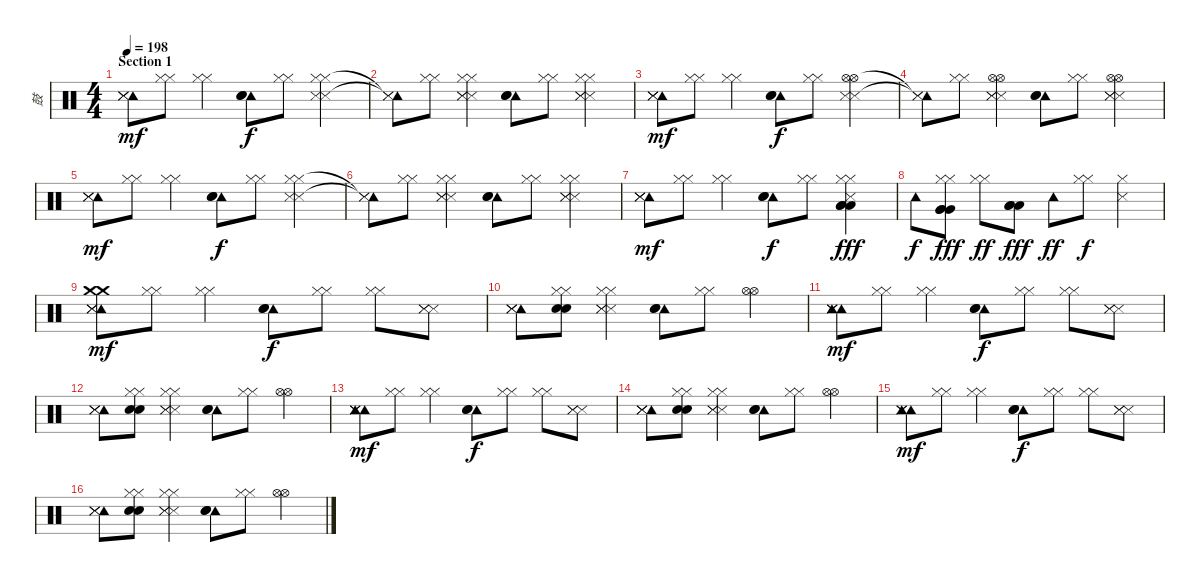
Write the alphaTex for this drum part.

\track ("鼓" "鼓") {instrument percussion}
\staff {score}
\articulation defaults
\ts (4 4)
\section ("" "Section 1")
\tempo 198
\clef neutral
\ks c
("Tambourine (hit)" "Metronome (hit)" "Metronome (hit)" "Metronome (hit)").8{dy mf} ("Hi-Hat (closed)" "Hi-Hat (closed)").8 ("Hi-Hat (closed)" "Hi-Hat (closed)").4 ("Tambourine (hit)" "Metronome (bell)" "Metronome (bell)").8{dy f} ("Hi-Hat (closed)" "Hi-Hat (closed)").8 ("Hi-Hat (closed)" "Hi-Hat (closed)" "Metronome (hit)" "Metronome (hit)").4 |
("Tambourine (hit)" "Metronome (hit)"{t} "Metronome (hit)"{t}).8 ("Hi-Hat (closed)" "Hi-Hat (closed)").8 ("Hi-Hat (closed)" "Hi-Hat (closed)" "Metronome (hit)" "Metronome (hit)" "Metronome (hit)").4 ("Tambourine (hit)" "Metronome (bell)" "Metronome (bell)").8 ("Hi-Hat (closed)" "Hi-Hat (closed)").8 ("Hi-Hat (closed)" "Hi-Hat (closed)" "Metronome (hit)" "Metronome (hit)" "Metronome (hit)").4 |
("Tambourine (hit)" "Metronome (hit)" "Metronome (hit)" "Metronome (hit)").8{dy mf} ("Hi-Hat (closed)" "Hi-Hat (closed)").8 ("Hi-Hat (closed)" "Hi-Hat (closed)").4 ("Tambourine (hit)" "Metronome (bell)" "Metronome (bell)").8{dy f} ("Hi-Hat (closed)" "Hi-Hat (closed)").8 ("Hi-Hat (open)" "Hi-Hat (open)" "Metronome (hit)" "Metronome (hit)").4 |
("Tambourine (hit)" "Metronome (hit)"{t} "Metronome (hit)"{t}).8 ("Hi-Hat (closed)" "Hi-Hat (closed)").8 ("Hi-Hat (open)" "Hi-Hat (open)" "Metronome (hit)" "Metronome (hit)" "Metronome (hit)").4 ("Tambourine (hit)" "Metronome (bell)" "Metronome (bell)").8 ("Hi-Hat (closed)" "Hi-Hat (closed)").8 ("Hi-Hat (open)" "Hi-Hat (open)" "Metronome (hit)" "Metronome (hit)" "Metronome (hit)").4 |
("Tambourine (hit)" "Metronome (hit)" "Metronome (hit)" "Metronome (hit)").8{dy mf} ("Hi-Hat (closed)" "Hi-Hat (closed)").8 ("Hi-Hat (closed)" "Hi-Hat (closed)").4 ("Tambourine (hit)" "Metronome (bell)" "Metronome (bell)").8{dy f} ("Hi-Hat (closed)" "Hi-Hat (closed)").8 ("Hi-Hat (closed)" "Hi-Hat (closed)" "Metronome (hit)" "Metronome (hit)").4 |
("Tambourine (hit)" "Metronome (hit)"{t} "Metronome (hit)"{t}).8 ("Hi-Hat (closed)" "Hi-Hat (closed)").8 ("Hi-Hat (closed)" "Hi-Hat (closed)" "Metronome (hit)" "Metronome (hit)" "Metronome (hit)").4 ("Tambourine (hit)" "Metronome (bell)" "Metronome (bell)").8 ("Hi-Hat (closed)" "Hi-Hat (closed)").8 ("Hi-Hat (closed)" "Hi-Hat (closed)" "Metronome (hit)" "Metronome (hit)" "Metronome (hit)").4 |
("Tambourine (hit)" "Metronome (hit)" "Metronome (hit)" "Metronome (hit)").8{dy mf} ("Hi-Hat (closed)" "Hi-Hat (closed)").8 ("Hi-Hat (closed)" "Hi-Hat (closed)").4 ("Tambourine (hit)" "Metronome (bell)" "Metronome (bell)").8{dy f} ("Hi-Hat (closed)" "Hi-Hat (closed)").8 ("Hi-Hat (closed)" "Hi-Hat (closed)" "Metronome (hit)" "Low Tom (hit)" "Low Tom (hit)" "Low Tom (hit)").4{dy fff} |
"Tambourine (hit)".8{dy f} ("Hi-Hat (closed)" "Hi-Hat (closed)" "Very Low Tom (hit)" "Very Low Tom (hit)" "Very Low Tom (hit)").8{dy fff} ("Hi-Hat (closed)" "Hi-Hat (closed)").8{dy ff} ("Low Floor Tom (hit)" "Low Floor Tom (hit)" "Low Floor Tom (hit)").8{dy fff} "Tambourine (hit)".8{dy ff} ("Hi-Hat (closed)" "Hi-Hat (closed)").8{dy f} ("Hi-Hat (closed)" "Metronome (hit)").4 |
("Tambourine (hit)" "Crash medium (hit)" "Metronome (hit)" "Metronome (hit)" "Metronome (hit)" "Crash medium (hit)").8{dy mf} ("Hi-Hat (closed)" "Hi-Hat (closed)").8 ("Hi-Hat (closed)" "Hi-Hat (closed)").4 ("Tambourine (hit)" "Metronome (bell)" "Metronome (bell)").8{dy f} ("Hi-Hat (closed)" "Hi-Hat (closed)").8 ("Hi-Hat (closed)" "Hi-Hat (closed)").8 ("Metronome (hit)" "Metronome (hit)" "Metronome (hit)").8 |
("Tambourine (hit)" "Metronome (hit)" "Metronome (hit)" "Metronome (hit)").8 ("Hi-Hat (closed)" "Hi-Hat (closed)" "Metronome (bell)" "Metronome (bell)").8 ("Hi-Hat (closed)" "Hi-Hat (closed)" "Metronome (hit)" "Metronome (hit)" "Metronome (hit)").4 ("Tambourine (hit)" "Metronome (bell)" "Metronome (bell)").8 ("Hi-Hat (closed)" "Hi-Hat (closed)").8 ("Hi-Hat (open)" "Hi-Hat (open)").4 |
("Tambourine (hit)" "Tambourine (hit)" "Metronome (hit)" "Metronome (hit)" "Metronome (hit)").8{dy mf} ("Hi-Hat (closed)" "Hi-Hat (closed)").8 ("Hi-Hat (closed)" "Hi-Hat (closed)").4 ("Tambourine (hit)" "Metronome (bell)" "Metronome (bell)").8{dy f} ("Hi-Hat (closed)" "Hi-Hat (closed)").8 ("Hi-Hat (closed)" "Hi-Hat (closed)").8 ("Metronome (hit)" "Metronome (hit)" "Metronome (hit)").8 |
("Tambourine (hit)" "Metronome (hit)" "Metronome (hit)" "Metronome (hit)").8 ("Hi-Hat (closed)" "Hi-Hat (closed)" "Metronome (bell)" "Metronome (bell)").8 ("Hi-Hat (closed)" "Hi-Hat (closed)" "Metronome (hit)" "Metronome (hit)" "Metronome (hit)").4 ("Tambourine (hit)" "Metronome (bell)" "Metronome (bell)").8 ("Hi-Hat (closed)" "Hi-Hat (closed)").8 ("Hi-Hat (open)" "Hi-Hat (open)").4 |
("Tambourine (hit)" "Tambourine (hit)" "Metronome (hit)" "Metronome (hit)" "Metronome (hit)").8{dy mf} ("Hi-Hat (closed)" "Hi-Hat (closed)").8 ("Hi-Hat (closed)" "Hi-Hat (closed)").4 ("Tambourine (hit)" "Metronome (bell)" "Metronome (bell)").8{dy f} ("Hi-Hat (closed)" "Hi-Hat (closed)").8 ("Hi-Hat (closed)" "Hi-Hat (closed)").8 ("Metronome (hit)" "Metronome (hit)" "Metronome (hit)").8 |
("Tambourine (hit)" "Metronome (hit)" "Metronome (hit)" "Metronome (hit)").8 ("Hi-Hat (closed)" "Hi-Hat (closed)" "Metronome (bell)" "Metronome (bell)").8 ("Hi-Hat (closed)" "Hi-Hat (closed)" "Metronome (hit)" "Metronome (hit)" "Metronome (hit)").4 ("Tambourine (hit)" "Metronome (bell)" "Metronome (bell)").8 ("Hi-Hat (closed)" "Hi-Hat (closed)").8 ("Hi-Hat (open)" "Hi-Hat (open)").4 |
("Tambourine (hit)" "Tambourine (hit)" "Metronome (hit)" "Metronome (hit)" "Metronome (hit)").8{dy mf} ("Hi-Hat (closed)" "Hi-Hat (closed)").8 ("Hi-Hat (closed)" "Hi-Hat (closed)").4 ("Tambourine (hit)" "Metronome (bell)" "Metronome (bell)").8{dy f} ("Hi-Hat (closed)" "Hi-Hat (closed)").8 ("Hi-Hat (closed)" "Hi-Hat (closed)").8 ("Metronome (hit)" "Metronome (hit)" "Metronome (hit)").8 |
("Tambourine (hit)" "Metronome (hit)" "Metronome (hit)" "Metronome (hit)").8 ("Hi-Hat (closed)" "Hi-Hat (closed)" "Metronome (bell)" "Metronome (bell)").8 ("Hi-Hat (closed)" "Hi-Hat (closed)" "Metronome (hit)" "Metronome (hit)" "Metronome (hit)").4 ("Tambourine (hit)" "Metronome (bell)" "Metronome (bell)").8 ("Hi-Hat (closed)" "Hi-Hat (closed)").8 ("Hi-Hat (open)" "Hi-Hat (open)").4
